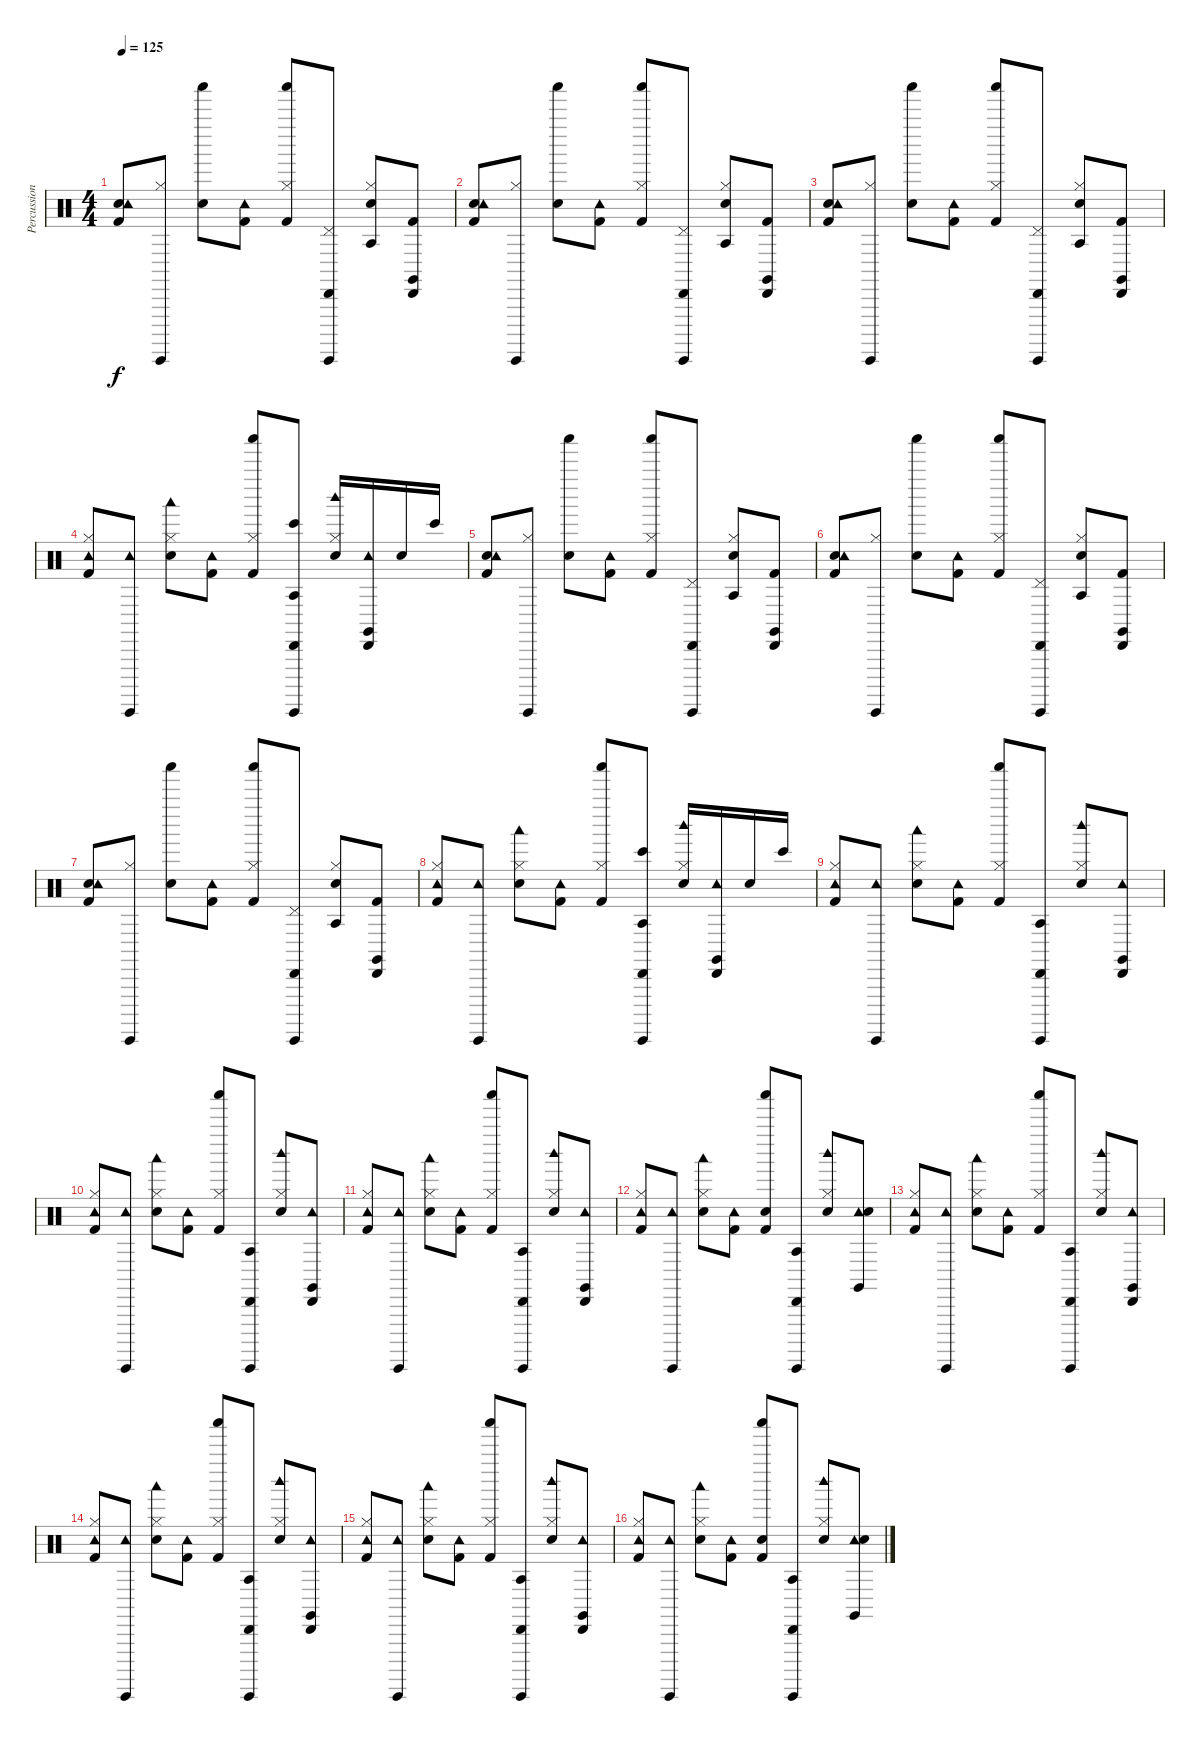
\track ("Percussion" "Percussion") {instrument percussion}
\staff {score}
\articulation defaults
\ts (4 4)
\tempo 125
\clef neutral
\ks c
("Kick (hit) 2" "Electric Snare (hit)" "Tambourine (hit)").8{dy f} ("Guiro (hit)" "Hi-Hat (closed)").8 ("Electric Snare (hit)" "Shaker (hit)").8 ("Tambourine (hit)" "Kick (hit) 2").8 ("Shaker (hit)" "Hi-Hat (closed)" "Kick (hit) 2").8 ("Cabasa (hit)" "Guiro (hit)" "Pedal Hi-Hat (hit)").8 ("Electric Snare (hit)" "Hi-Hat (closed)" "Agogo tow (hit)").8 ("Kick (hit) 2" "Cabasa (hit)" "Claves (hit)").8 |
("Kick (hit) 2" "Electric Snare (hit)" "Tambourine (hit)").8 ("Guiro (hit)" "Hi-Hat (closed)").8 ("Electric Snare (hit)" "Shaker (hit)").8 ("Tambourine (hit)" "Kick (hit) 2").8 ("Shaker (hit)" "Hi-Hat (closed)" "Kick (hit) 2").8 ("Cabasa (hit)" "Guiro (hit)" "Pedal Hi-Hat (hit)").8 ("Electric Snare (hit)" "Hi-Hat (closed)" "Agogo tow (hit)").8 ("Kick (hit) 2" "Cabasa (hit)" "Claves (hit)").8 |
("Kick (hit) 2" "Electric Snare (hit)" "Tambourine (hit)").8 ("Guiro (hit)" "Hi-Hat (closed)").8 ("Electric Snare (hit)" "Shaker (hit)").8 ("Tambourine (hit)" "Kick (hit) 2").8 ("Shaker (hit)" "Hi-Hat (closed)" "Kick (hit) 2").8 ("Cabasa (hit)" "Guiro (hit)" "Pedal Hi-Hat (hit)").8 ("Electric Snare (hit)" "Hi-Hat (closed)" "Agogo tow (hit)").8 ("Kick (hit) 2" "Cabasa (hit)" "Claves (hit)").8 |
("Tambourine (hit)" "Hi-Hat (closed)" "Kick (hit) 2").8 ("Tambourine (hit)" "Guiro (hit)").8 ("Electric Snare (hit)" "Hi-Hat (closed)" "Woodblock low (hit)").8 ("Tambourine (hit)" "Kick (hit) 2").8 ("Shaker (hit)" "Hi-Hat (closed)" "Kick (hit) 2").8 ("Cabasa (hit)" "Bongo High (hit)" "Guiro (hit)" "Agogo tow (hit)").8 ("Electric Snare (hit)" "Hi-Hat (closed)" "Woodblock high (hit)").16 ("Tambourine (hit)" "Cabasa (hit)" "Claves (hit)").16 "Electric Snare (hit)".16 "Bongo High (hit)".16 |
("Kick (hit) 2" "Electric Snare (hit)" "Tambourine (hit)").8 ("Guiro (hit)" "Hi-Hat (closed)").8 ("Electric Snare (hit)" "Shaker (hit)").8 ("Tambourine (hit)" "Kick (hit) 2").8 ("Shaker (hit)" "Hi-Hat (closed)" "Kick (hit) 2").8 ("Cabasa (hit)" "Guiro (hit)" "Pedal Hi-Hat (hit)").8 ("Electric Snare (hit)" "Hi-Hat (closed)" "Agogo tow (hit)").8 ("Kick (hit) 2" "Cabasa (hit)" "Claves (hit)").8 |
("Kick (hit) 2" "Electric Snare (hit)" "Tambourine (hit)").8 ("Guiro (hit)" "Hi-Hat (closed)").8 ("Electric Snare (hit)" "Shaker (hit)").8 ("Tambourine (hit)" "Kick (hit) 2").8 ("Shaker (hit)" "Hi-Hat (closed)" "Kick (hit) 2").8 ("Cabasa (hit)" "Guiro (hit)" "Pedal Hi-Hat (hit)").8 ("Electric Snare (hit)" "Hi-Hat (closed)" "Agogo tow (hit)").8 ("Kick (hit) 2" "Cabasa (hit)" "Claves (hit)").8 |
("Kick (hit) 2" "Electric Snare (hit)" "Tambourine (hit)").8 ("Guiro (hit)" "Hi-Hat (closed)").8 ("Electric Snare (hit)" "Shaker (hit)").8 ("Tambourine (hit)" "Kick (hit) 2").8 ("Shaker (hit)" "Hi-Hat (closed)" "Kick (hit) 2").8 ("Cabasa (hit)" "Guiro (hit)" "Pedal Hi-Hat (hit)").8 ("Electric Snare (hit)" "Hi-Hat (closed)" "Agogo tow (hit)").8 ("Kick (hit) 2" "Cabasa (hit)" "Claves (hit)").8 |
("Tambourine (hit)" "Hi-Hat (closed)" "Kick (hit) 2").8 ("Tambourine (hit)" "Guiro (hit)").8 ("Electric Snare (hit)" "Hi-Hat (closed)" "Woodblock low (hit)").8 ("Tambourine (hit)" "Kick (hit) 2").8 ("Shaker (hit)" "Hi-Hat (closed)" "Kick (hit) 2").8 ("Cabasa (hit)" "Bongo High (hit)" "Guiro (hit)" "Agogo tow (hit)").8 ("Electric Snare (hit)" "Hi-Hat (closed)" "Woodblock high (hit)").16 ("Tambourine (hit)" "Cabasa (hit)" "Claves (hit)").16 "Electric Snare (hit)".16 "Bongo High (hit)".16 |
("Tambourine (hit)" "Hi-Hat (closed)" "Kick (hit) 2").8 ("Tambourine (hit)" "Guiro (hit)").8 ("Electric Snare (hit)" "Hi-Hat (closed)" "Woodblock low (hit)").8 ("Tambourine (hit)" "Kick (hit) 2").8 ("Shaker (hit)" "Hi-Hat (closed)" "Kick (hit) 2").8 ("Cabasa (hit)" "Guiro (hit)" "Agogo tow (hit)").8 ("Electric Snare (hit)" "Hi-Hat (closed)" "Woodblock high (hit)").8 ("Tambourine (hit)" "Cabasa (hit)" "Claves (hit)").8 |
("Tambourine (hit)" "Hi-Hat (closed)" "Kick (hit) 2").8 ("Tambourine (hit)" "Guiro (hit)").8 ("Electric Snare (hit)" "Hi-Hat (closed)" "Woodblock low (hit)").8 ("Tambourine (hit)" "Kick (hit) 2").8 ("Shaker (hit)" "Hi-Hat (closed)" "Kick (hit) 2").8 ("Cabasa (hit)" "Guiro (hit)" "Agogo tow (hit)").8 ("Electric Snare (hit)" "Hi-Hat (closed)" "Woodblock high (hit)").8 ("Tambourine (hit)" "Cabasa (hit)" "Claves (hit)").8 |
("Tambourine (hit)" "Hi-Hat (closed)" "Kick (hit) 2").8 ("Tambourine (hit)" "Guiro (hit)").8 ("Electric Snare (hit)" "Hi-Hat (closed)" "Woodblock low (hit)").8 ("Tambourine (hit)" "Kick (hit) 2").8 ("Shaker (hit)" "Hi-Hat (closed)" "Kick (hit) 2").8 ("Cabasa (hit)" "Guiro (hit)" "Agogo tow (hit)").8 ("Electric Snare (hit)" "Hi-Hat (closed)" "Woodblock high (hit)").8 ("Tambourine (hit)" "Cabasa (hit)" "Claves (hit)").8 |
("Tambourine (hit)" "Hi-Hat (closed)" "Kick (hit) 2").8 ("Tambourine (hit)" "Guiro (hit)").8 ("Electric Snare (hit)" "Hi-Hat (closed)" "Woodblock low (hit)").8 ("Tambourine (hit)" "Kick (hit) 2").8 ("Shaker (hit)" "Electric Snare (hit)" "Kick (hit) 2").8 ("Cabasa (hit)" "Guiro (hit)" "Agogo tow (hit)").8 ("Electric Snare (hit)" "Hi-Hat (closed)" "Woodblock high (hit)").8 ("Tambourine (hit)" "Electric Snare (hit)" "Claves (hit)").8 |
("Tambourine (hit)" "Hi-Hat (closed)" "Kick (hit) 2").8 ("Tambourine (hit)" "Guiro (hit)").8 ("Electric Snare (hit)" "Hi-Hat (closed)" "Woodblock low (hit)").8 ("Tambourine (hit)" "Kick (hit) 2").8 ("Shaker (hit)" "Hi-Hat (closed)" "Kick (hit) 2").8 ("Cabasa (hit)" "Guiro (hit)" "Agogo tow (hit)").8 ("Electric Snare (hit)" "Hi-Hat (closed)" "Woodblock high (hit)").8 ("Tambourine (hit)" "Cabasa (hit)" "Claves (hit)").8 |
("Tambourine (hit)" "Hi-Hat (closed)" "Kick (hit) 2").8 ("Tambourine (hit)" "Guiro (hit)").8 ("Electric Snare (hit)" "Hi-Hat (closed)" "Woodblock low (hit)").8 ("Tambourine (hit)" "Kick (hit) 2").8 ("Shaker (hit)" "Hi-Hat (closed)" "Kick (hit) 2").8 ("Cabasa (hit)" "Guiro (hit)" "Agogo tow (hit)").8 ("Electric Snare (hit)" "Hi-Hat (closed)" "Woodblock high (hit)").8 ("Tambourine (hit)" "Cabasa (hit)" "Claves (hit)").8 |
("Tambourine (hit)" "Hi-Hat (closed)" "Kick (hit) 2").8 ("Tambourine (hit)" "Guiro (hit)").8 ("Electric Snare (hit)" "Hi-Hat (closed)" "Woodblock low (hit)").8 ("Tambourine (hit)" "Kick (hit) 2").8 ("Shaker (hit)" "Hi-Hat (closed)" "Kick (hit) 2").8 ("Cabasa (hit)" "Guiro (hit)" "Agogo tow (hit)").8 ("Electric Snare (hit)" "Hi-Hat (closed)" "Woodblock high (hit)").8 ("Tambourine (hit)" "Cabasa (hit)" "Claves (hit)").8 |
("Tambourine (hit)" "Hi-Hat (closed)" "Kick (hit) 2").8 ("Tambourine (hit)" "Guiro (hit)").8 ("Electric Snare (hit)" "Hi-Hat (closed)" "Woodblock low (hit)").8 ("Tambourine (hit)" "Kick (hit) 2").8 ("Shaker (hit)" "Electric Snare (hit)" "Kick (hit) 2").8 ("Cabasa (hit)" "Guiro (hit)" "Agogo tow (hit)").8 ("Electric Snare (hit)" "Hi-Hat (closed)" "Woodblock high (hit)").8 ("Tambourine (hit)" "Electric Snare (hit)" "Claves (hit)").8
